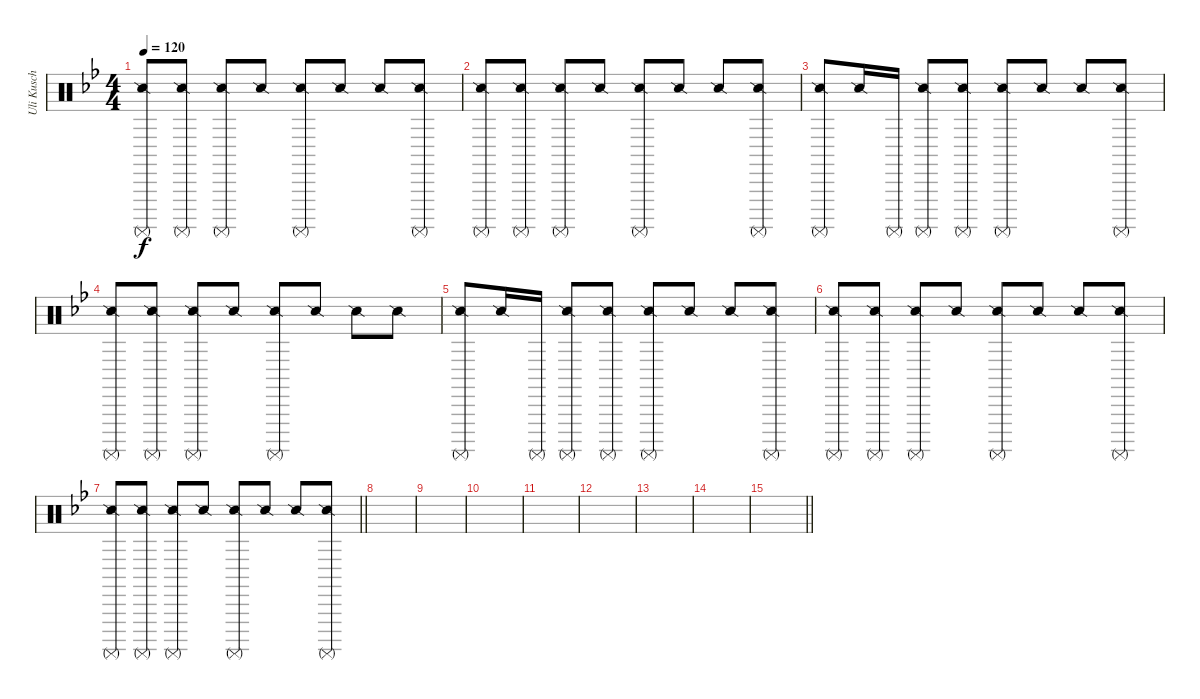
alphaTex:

\track ("Uli Kusch" "Uli Kusch") {instrument percussion}
\staff {score}
\articulation defaults
\ts (4 4)
\tempo 120
\clef neutral
\ks gminor
("Snare (side stick) 2" "Surdo (mute)").8{dy f} ("Snare (side stick) 2" "Surdo (mute)").8 ("Snare (side stick) 2" "Surdo (mute)").8 "Snare (side stick) 2".8 ("Snare (side stick) 2" "Surdo (mute)").8 "Snare (side stick) 2".8 "Snare (side stick) 2".8 ("Snare (side stick) 2" "Surdo (mute)").8 |
("Snare (side stick) 2" "Surdo (mute)").8 ("Snare (side stick) 2" "Surdo (mute)").8 ("Snare (side stick) 2" "Surdo (mute)").8 "Snare (side stick) 2".8 ("Snare (side stick) 2" "Surdo (mute)").8 "Snare (side stick) 2".8 "Snare (side stick) 2".8 ("Snare (side stick) 2" "Surdo (mute)").8 |
("Surdo (mute)" "Snare (side stick) 2").8 "Snare (side stick) 2".16 "Surdo (mute)".16 ("Surdo (mute)" "Snare (side stick) 2").8 ("Surdo (mute)" "Snare (side stick) 2").8 ("Surdo (mute)" "Snare (side stick) 2").8 "Snare (side stick) 2".8 "Snare (side stick) 2".8 ("Surdo (mute)" "Snare (side stick) 2").8 |
("Snare (side stick) 2" "Surdo (mute)").8 ("Snare (side stick) 2" "Surdo (mute)").8 ("Snare (side stick) 2" "Surdo (mute)").8 "Snare (side stick) 2".8 ("Snare (side stick) 2" "Surdo (mute)").8 "Snare (side stick) 2".8 "Snare (side stick) 2".8 "Snare (side stick) 2".8 |
("Surdo (mute)" "Snare (side stick) 2").8 "Snare (side stick) 2".16 "Surdo (mute)".16 ("Surdo (mute)" "Snare (side stick) 2").8 ("Surdo (mute)" "Snare (side stick) 2").8 ("Surdo (mute)" "Snare (side stick) 2").8 "Snare (side stick) 2".8 "Snare (side stick) 2".8 ("Surdo (mute)" "Snare (side stick) 2").8 |
("Snare (side stick) 2" "Surdo (mute)").8 ("Snare (side stick) 2" "Surdo (mute)").8 ("Snare (side stick) 2" "Surdo (mute)").8 "Snare (side stick) 2".8 ("Snare (side stick) 2" "Surdo (mute)").8 "Snare (side stick) 2".8 "Snare (side stick) 2".8 ("Snare (side stick) 2" "Surdo (mute)").8 |
\barLineRight lightlight
("Snare (side stick) 2" "Surdo (mute)").8 ("Snare (side stick) 2" "Surdo (mute)").8 ("Snare (side stick) 2" "Surdo (mute)").8 "Snare (side stick) 2".8 ("Snare (side stick) 2" "Surdo (mute)").8 "Snare (side stick) 2".8 "Snare (side stick) 2".8 ("Snare (side stick) 2" "Surdo (mute)").8 |
|
|
|
|
|
|
|
\barLineRight lightlight
